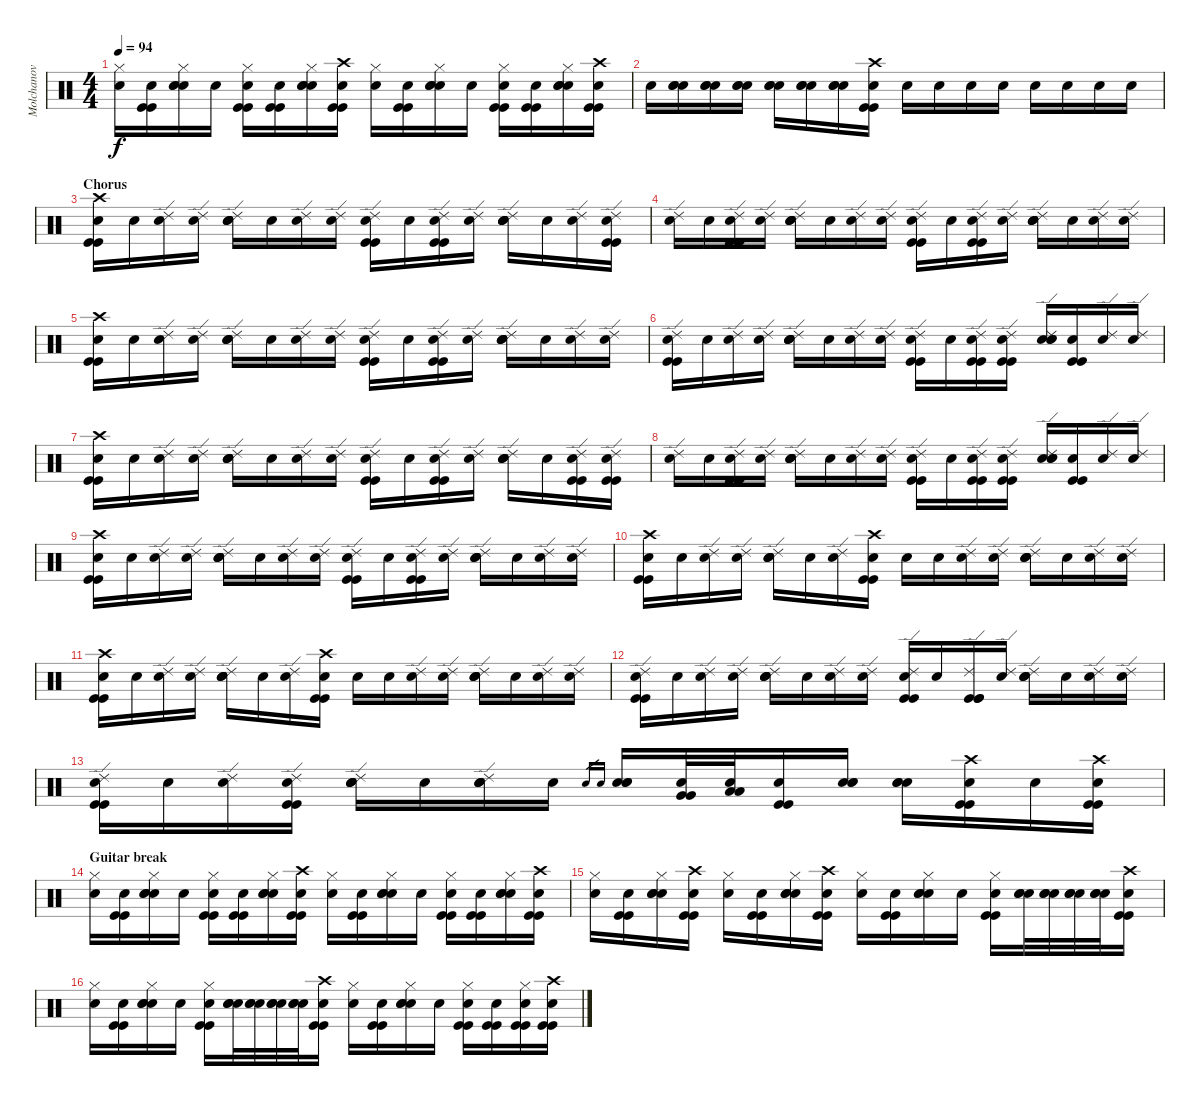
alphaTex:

\track ("Molchanov" "Molchanov") {instrument percussion}
\staff {score}
\articulation defaults
\ts (4 4)
\tempo 94
\clef neutral
\ks c
("Hi-Hat (closed)" "Snare (hit)"{x}).16{dy f} ("Kick (hit)" "Kick (hit)" "Snare (hit)"{x}).16 ("Hi-Hat (closed)" "Electric Snare (hit)" "Electric Snare (hit)" "Snare (hit)"{x}).16 "Snare (hit)"{x}.16 ("Hi-Hat (closed)" "Kick (hit)" "Kick (hit)" "Snare (hit)"{x}).16 ("Kick (hit)" "Kick (hit)" "Snare (hit)"{x}).16 ("Hi-Hat (closed)" "Electric Snare (hit)" "Electric Snare (hit)" "Snare (hit)"{x}).16 ("Crash high (hit)" "Kick (hit)" "Kick (hit)" "Snare (hit)"{x}).16 ("Hi-Hat (closed)" "Snare (hit)"{x}).16 ("Kick (hit)" "Kick (hit)" "Snare (hit)"{x}).16 ("Hi-Hat (closed)" "Electric Snare (hit)" "Electric Snare (hit)" "Snare (hit)"{x}).16 "Snare (hit)"{x}.16 ("Hi-Hat (closed)" "Kick (hit)" "Kick (hit)" "Snare (hit)"{x}).16 ("Kick (hit)" "Kick (hit)" "Snare (hit)"{x}).16 ("Hi-Hat (closed)" "Electric Snare (hit)" "Electric Snare (hit)" "Snare (hit)"{x}).16 ("Crash high (hit)" "Kick (hit)" "Kick (hit)" "Snare (hit)"{x}).16 |
"Snare (hit)"{x}.16 ("Electric Snare (hit)" "Electric Snare (hit)" "Snare (hit)"{x}).16 ("Electric Snare (hit)" "Electric Snare (hit)" "Snare (hit)"{x}).16 ("Electric Snare (hit)" "Electric Snare (hit)" "Snare (hit)"{x}).16 ("Electric Snare (hit)" "Electric Snare (hit)" "Snare (hit)"{x}).16 ("Electric Snare (hit)" "Electric Snare (hit)" "Snare (hit)"{x}).16 ("Electric Snare (hit)" "Electric Snare (hit)" "Snare (hit)"{x}).16 ("Crash high (hit)" "Kick (hit)" "Kick (hit)" "Snare (hit)"{x}).16 "Snare (hit)"{x}.16 "Snare (hit)"{x}.16 "Snare (hit)"{x}.16 "Snare (hit)"{x}.16 "Snare (hit)"{x}.16 "Snare (hit)"{x}.16 "Snare (hit)"{x}.16 "Snare (hit)"{x}.16 |
\section ("" "Chorus")
("Crash high (hit)" "Kick (hit)" "Kick (hit)" "Snare (hit)"{x}).16 "Snare (hit)"{x}.16 ("Ride (edge) 2" "Snare (hit)"{x}).16 ("Ride (edge) 2" "Snare (hit)"{x}).16 ("Ride (edge) 2" "Electric Snare (hit)" "Electric Snare (hit)" "Snare (hit)"{x}).16 "Snare (hit)"{x}.16 ("Ride (edge) 2" "Snare (hit)"{x}).16 ("Ride (edge) 2" "Snare (hit)"{x}).16 ("Ride (edge) 2" "Kick (hit)" "Kick (hit)" "Snare (hit)"{x}).16 "Snare (hit)"{x}.16 ("Ride (edge) 2" "Kick (hit)" "Kick (hit)" "Snare (hit)"{x}).16 ("Ride (edge) 2" "Snare (hit)"{x}).16 ("Ride (edge) 2" "Electric Snare (hit)" "Electric Snare (hit)" "Snare (hit)"{x}).16 "Snare (hit)"{x}.16 ("Ride (edge) 2" "Snare (hit)"{x}).16 ("Ride (edge) 2" "Kick (hit)" "Kick (hit)" "Snare (hit)"{x}).16 |
("Ride (edge) 2" "Snare (hit)"{x}).16 "Snare (hit)"{x}.16 ("Ride (edge) 2" "Kick (hit)" "Kick (hit)" "Snare (hit)"{x}).16 ("Ride (edge) 2" "Snare (hit)"{x}).16 ("Ride (edge) 2" "Electric Snare (hit)" "Electric Snare (hit)" "Snare (hit)"{x}).16 "Snare (hit)"{x}.16 ("Ride (edge) 2" "Snare (hit)"{x}).16 ("Ride (edge) 2" "Snare (hit)"{x}).16 ("Ride (edge) 2" "Kick (hit)" "Kick (hit)" "Snare (hit)"{x}).16 "Snare (hit)"{x}.16 ("Ride (edge) 2" "Kick (hit)" "Kick (hit)" "Snare (hit)"{x}).16 ("Ride (edge) 2" "Snare (hit)"{x}).16 ("Ride (edge) 2" "Electric Snare (hit)" "Electric Snare (hit)" "Snare (hit)"{x}).16 "Snare (hit)"{x}.16 ("Ride (edge) 2" "Snare (hit)"{x}).16 ("Ride (edge) 2" "Snare (hit)"{x}).16 |
("Crash high (hit)" "Kick (hit)" "Kick (hit)" "Snare (hit)"{x}).16 "Snare (hit)"{x}.16 ("Ride (edge) 2" "Snare (hit)"{x}).16 ("Ride (edge) 2" "Snare (hit)"{x}).16 ("Ride (edge) 2" "Electric Snare (hit)" "Electric Snare (hit)" "Snare (hit)"{x}).16 "Snare (hit)"{x}.16 ("Ride (edge) 2" "Snare (hit)"{x}).16 ("Ride (edge) 2" "Snare (hit)"{x}).16 ("Ride (edge) 2" "Kick (hit)" "Kick (hit)" "Snare (hit)"{x}).16 "Snare (hit)"{x}.16 ("Ride (edge) 2" "Kick (hit)" "Kick (hit)" "Snare (hit)"{x}).16 ("Ride (edge) 2" "Snare (hit)"{x}).16 ("Ride (edge) 2" "Electric Snare (hit)" "Electric Snare (hit)" "Snare (hit)"{x}).16 "Snare (hit)"{x}.16 ("Ride (edge) 2" "Snare (hit)"{x}).16 ("Ride (edge) 2" "Snare (hit)"{x}).16 |
("Ride (edge) 2" "Kick (hit)" "Kick (hit)" "Snare (hit)"{x}).16 "Snare (hit)"{x}.16 ("Ride (edge) 2" "Snare (hit)"{x}).16 ("Ride (edge) 2" "Snare (hit)"{x}).16 ("Ride (edge) 2" "Electric Snare (hit)" "Electric Snare (hit)" "Snare (hit)"{x}).16 "Snare (hit)"{x}.16 ("Ride (edge) 2" "Snare (hit)"{x}).16 ("Ride (edge) 2" "Snare (hit)"{x}).16 ("Ride (edge) 2" "Kick (hit)" "Kick (hit)" "Snare (hit)"{x}).16 "Snare (hit)"{x}.16 ("Ride (edge) 2" "Kick (hit)" "Kick (hit)" "Snare (hit)"{x}).16 ("Ride (edge) 2" "Kick (hit)" "Kick (hit)" "Snare (hit)"{x}).16 ("Ride (edge) 2" "Electric Snare (hit)" "Electric Snare (hit)" "Snare (hit)"{x}).16 ("Kick (hit)" "Kick (hit)" "Snare (hit)"{x}).16 ("Ride (edge) 2" "Snare (hit)"{x}).16 ("Ride (edge) 2" "Snare (hit)"{x}).16 |
("Crash high (hit)" "Kick (hit)" "Kick (hit)" "Snare (hit)"{x}).16 "Snare (hit)"{x}.16 ("Ride (edge) 2" "Snare (hit)"{x}).16 ("Ride (edge) 2" "Snare (hit)"{x}).16 ("Ride (edge) 2" "Electric Snare (hit)" "Electric Snare (hit)" "Snare (hit)"{x}).16 "Snare (hit)"{x}.16 ("Ride (edge) 2" "Snare (hit)"{x}).16 ("Ride (edge) 2" "Snare (hit)"{x}).16 ("Ride (edge) 2" "Kick (hit)" "Kick (hit)" "Snare (hit)"{x}).16 "Snare (hit)"{x}.16 ("Ride (edge) 2" "Kick (hit)" "Kick (hit)" "Snare (hit)"{x}).16 ("Ride (edge) 2" "Snare (hit)"{x}).16 ("Ride (edge) 2" "Electric Snare (hit)" "Electric Snare (hit)" "Snare (hit)"{x}).16 "Snare (hit)"{x}.16 ("Ride (edge) 2" "Kick (hit)" "Kick (hit)" "Snare (hit)"{x}).16 ("Ride (edge) 2" "Kick (hit)" "Kick (hit)" "Snare (hit)"{x}).16 |
("Ride (edge) 2" "Snare (hit)"{x}).16 "Snare (hit)"{x}.16 ("Ride (edge) 2" "Kick (hit)" "Kick (hit)" "Snare (hit)"{x}).16 ("Ride (edge) 2" "Snare (hit)"{x}).16 ("Ride (edge) 2" "Electric Snare (hit)" "Electric Snare (hit)" "Snare (hit)"{x}).16 "Snare (hit)"{x}.16 ("Ride (edge) 2" "Snare (hit)"{x}).16 ("Ride (edge) 2" "Snare (hit)"{x}).16 ("Ride (edge) 2" "Kick (hit)" "Kick (hit)" "Snare (hit)"{x}).16 "Snare (hit)"{x}.16 ("Ride (edge) 2" "Kick (hit)" "Kick (hit)" "Snare (hit)"{x}).16 ("Ride (edge) 2" "Kick (hit)" "Kick (hit)" "Snare (hit)"{x}).16 ("Ride (edge) 2" "Electric Snare (hit)" "Electric Snare (hit)" "Snare (hit)"{x}).16 ("Kick (hit)" "Kick (hit)" "Snare (hit)"{x}).16 ("Ride (edge) 2" "Snare (hit)"{x}).16 ("Ride (edge) 2" "Snare (hit)"{x}).16 |
("Crash high (hit)" "Kick (hit)" "Kick (hit)" "Snare (hit)"{x}).16 "Snare (hit)"{x}.16 ("Ride (edge) 2" "Snare (hit)"{x}).16 ("Ride (edge) 2" "Snare (hit)"{x}).16 ("Ride (edge) 2" "Electric Snare (hit)" "Electric Snare (hit)" "Snare (hit)"{x}).16 "Snare (hit)"{x}.16 ("Ride (edge) 2" "Snare (hit)"{x}).16 ("Ride (edge) 2" "Snare (hit)"{x}).16 ("Ride (edge) 2" "Kick (hit)" "Kick (hit)" "Snare (hit)"{x}).16 "Snare (hit)"{x}.16 ("Ride (edge) 2" "Kick (hit)" "Kick (hit)" "Snare (hit)"{x}).16 ("Ride (edge) 2" "Snare (hit)"{x}).16 ("Ride (edge) 2" "Electric Snare (hit)" "Electric Snare (hit)" "Snare (hit)"{x}).16 "Snare (hit)"{x}.16 ("Ride (edge) 2" "Snare (hit)"{x}).16 ("Ride (edge) 2" "Snare (hit)"{x}).16 |
("Crash high (hit)" "Kick (hit)" "Kick (hit)" "Snare (hit)"{x}).16 "Snare (hit)"{x}.16 ("Ride (edge) 2" "Snare (hit)"{x}).16 ("Ride (edge) 2" "Snare (hit)"{x}).16 ("Ride (edge) 2" "Electric Snare (hit)" "Electric Snare (hit)" "Snare (hit)"{x}).16 "Snare (hit)"{x}.16 ("Ride (edge) 2" "Snare (hit)"{x}).16 ("Crash high (hit)" "Kick (hit)" "Kick (hit)" "Snare (hit)"{x}).16 "Snare (hit)"{x}.16 "Snare (hit)"{x}.16 ("Ride (edge) 2" "Snare (hit)"{x}).16 ("Ride (edge) 2" "Snare (hit)"{x}).16 ("Ride (edge) 2" "Electric Snare (hit)" "Electric Snare (hit)" "Snare (hit)"{x}).16 "Snare (hit)"{x}.16 ("Ride (edge) 2" "Snare (hit)"{x}).16 ("Ride (edge) 2" "Snare (hit)"{x}).16 |
("Crash high (hit)" "Kick (hit)" "Kick (hit)" "Snare (hit)"{x}).16 "Snare (hit)"{x}.16 ("Ride (edge) 2" "Snare (hit)"{x}).16 ("Ride (edge) 2" "Snare (hit)"{x}).16 ("Ride (edge) 2" "Electric Snare (hit)" "Electric Snare (hit)" "Snare (hit)"{x}).16 "Snare (hit)"{x}.16 ("Ride (edge) 2" "Snare (hit)"{x}).16 ("Crash high (hit)" "Kick (hit)" "Kick (hit)" "Snare (hit)"{x}).16 "Snare (hit)"{x}.16 "Snare (hit)"{x}.16 ("Ride (edge) 2" "Snare (hit)"{x}).16 ("Ride (edge) 2" "Snare (hit)"{x}).16 ("Ride (edge) 2" "Electric Snare (hit)" "Electric Snare (hit)" "Snare (hit)"{x}).16 "Snare (hit)"{x}.16 ("Ride (edge) 2" "Snare (hit)"{x}).16 ("Ride (edge) 2" "Snare (hit)"{x}).16 |
("Ride (edge) 2" "Kick (hit)" "Kick (hit)" "Snare (hit)"{x}).16 "Snare (hit)"{x}.16 ("Ride (edge) 2" "Snare (hit)"{x}).16 ("Ride (edge) 2" "Snare (hit)"{x}).16 ("Ride (edge) 2" "Electric Snare (hit)" "Electric Snare (hit)" "Snare (hit)"{x}).16 "Snare (hit)"{x}.16 ("Ride (edge) 2" "Snare (hit)"{x}).16 ("Ride (edge) 2" "Snare (hit)"{x}).16 ("Ride (edge) 2" "Kick (hit)" "Kick (hit)" "Snare (hit)"{x}).16 "Snare (hit)"{x}.16 ("Ride (edge) 2" "Kick (hit)" "Kick (hit)" "Kick (hit)"{x}).16 ("Ride (edge) 2" "Snare (hit)"{x}).16 ("Ride (edge) 2" "Electric Snare (hit)" "Electric Snare (hit)" "Snare (hit)"{x}).16 "Snare (hit)"{x}.16 ("Ride (edge) 2" "Snare (hit)"{x}).16 ("Ride (edge) 2" "Snare (hit)"{x}).16 |
("Ride (edge) 2" "Kick (hit)" "Kick (hit)" "Snare (hit)"{x}).16 "Snare (hit)"{x}.16 ("Ride (edge) 2" "Snare (hit)"{x}).16 ("Ride (edge) 2" "Kick (hit)" "Kick (hit)" "Snare (hit)"{x}).16 ("Ride (edge) 2" "Electric Snare (hit)" "Electric Snare (hit)" "Snare (hit)"{x}).16 "Snare (hit)"{x}.16 ("Ride (edge) 2" "Electric Snare (hit)" "Electric Snare (hit)" "Snare (hit)"{x}).16 "Snare (hit)"{x}.16 "Electric Snare (hit)".16{gr} "Electric Snare (hit)".16{gr} ("Electric Snare (hit)" "Electric Snare (hit)" "Snare (hit)"{x}).16 ("Very Low Tom (hit)" "Very Low Tom (hit)" "Snare (hit)"{x}).32 ("Low Floor Tom (hit)" "Low Floor Tom (hit)" "Snare (hit)"{x}).32 ("Kick (hit)" "Kick (hit)" "Snare (hit)"{x}).16 ("Electric Snare (hit)" "Electric Snare (hit)" "Snare (hit)"{x}).16 ("Electric Snare (hit)" "Electric Snare (hit)" "Snare (hit)"{x}).16 ("Crash high (hit)" "Kick (hit)" "Kick (hit)" "Snare (hit)"{x}).16 "Snare (hit)"{x}.16 ("Crash high (hit)" "Kick (hit)" "Kick (hit)" "Snare (hit)"{x}).16 |
\section ("" "Guitar break")
("Hi-Hat (closed)" "Snare (hit)"{x}).16 ("Kick (hit)" "Kick (hit)" "Snare (hit)"{x}).16 ("Hi-Hat (closed)" "Electric Snare (hit)" "Electric Snare (hit)" "Snare (hit)"{x}).16 "Snare (hit)"{x}.16 ("Hi-Hat (closed)" "Kick (hit)" "Kick (hit)" "Snare (hit)"{x}).16 ("Kick (hit)" "Kick (hit)" "Snare (hit)"{x}).16 ("Hi-Hat (closed)" "Electric Snare (hit)" "Electric Snare (hit)" "Snare (hit)"{x}).16 ("Crash high (hit)" "Kick (hit)" "Kick (hit)" "Snare (hit)"{x}).16 ("Hi-Hat (closed)" "Snare (hit)"{x}).16 ("Kick (hit)" "Kick (hit)" "Snare (hit)"{x}).16 ("Hi-Hat (closed)" "Electric Snare (hit)" "Electric Snare (hit)" "Snare (hit)"{x}).16 "Snare (hit)"{x}.16 ("Hi-Hat (closed)" "Kick (hit)" "Kick (hit)" "Snare (hit)"{x}).16 ("Kick (hit)" "Kick (hit)" "Snare (hit)"{x}).16 ("Hi-Hat (closed)" "Electric Snare (hit)" "Electric Snare (hit)" "Snare (hit)"{x}).16 ("Crash high (hit)" "Kick (hit)" "Kick (hit)" "Snare (hit)"{x}).16 |
("Hi-Hat (closed)" "Snare (hit)"{x}).16 ("Kick (hit)" "Kick (hit)" "Snare (hit)"{x}).16 ("Hi-Hat (closed)" "Electric Snare (hit)" "Electric Snare (hit)" "Snare (hit)"{x}).16 ("Crash high (hit)" "Kick (hit)" "Kick (hit)" "Snare (hit)"{x}).16 ("Hi-Hat (closed)" "Snare (hit)"{x}).16 ("Kick (hit)" "Kick (hit)" "Snare (hit)"{x}).16 ("Hi-Hat (closed)" "Electric Snare (hit)" "Electric Snare (hit)" "Snare (hit)"{x}).16 ("Crash high (hit)" "Kick (hit)" "Kick (hit)" "Snare (hit)"{x}).16 ("Hi-Hat (closed)" "Snare (hit)"{x}).16 ("Kick (hit)" "Kick (hit)" "Snare (hit)"{x}).16 ("Hi-Hat (closed)" "Electric Snare (hit)" "Electric Snare (hit)" "Snare (hit)"{x}).16 "Snare (hit)"{x}.16 ("Hi-Hat (closed)" "Kick (hit)" "Kick (hit)" "Snare (hit)"{x}).16 ("Electric Snare (hit)" "Electric Snare (hit)" "Snare (hit)"{x}).32 ("Electric Snare (hit)" "Electric Snare (hit)" "Snare (hit)"{x}).32 ("Electric Snare (hit)" "Electric Snare (hit)" "Snare (hit)"{x}).32 ("Electric Snare (hit)" "Electric Snare (hit)" "Snare (hit)"{x}).32 ("Crash high (hit)" "Kick (hit)" "Kick (hit)" "Snare (hit)"{x}).16 |
("Hi-Hat (closed)" "Snare (hit)"{x}).16 ("Kick (hit)" "Kick (hit)" "Snare (hit)"{x}).16 ("Hi-Hat (closed)" "Electric Snare (hit)" "Electric Snare (hit)" "Snare (hit)"{x}).16 "Snare (hit)"{x}.16 ("Hi-Hat (closed)" "Kick (hit)" "Kick (hit)" "Snare (hit)"{x}).16 ("Electric Snare (hit)" "Electric Snare (hit)" "Snare (hit)"{x}).32 ("Electric Snare (hit)" "Electric Snare (hit)" "Snare (hit)"{x}).32 ("Electric Snare (hit)" "Electric Snare (hit)" "Snare (hit)"{x}).32 ("Electric Snare (hit)" "Electric Snare (hit)" "Snare (hit)"{x}).32 ("Crash high (hit)" "Kick (hit)" "Kick (hit)" "Snare (hit)"{x}).16 ("Hi-Hat (closed)" "Snare (hit)"{x}).16 ("Kick (hit)" "Kick (hit)" "Snare (hit)"{x}).16 ("Hi-Hat (closed)" "Electric Snare (hit)" "Electric Snare (hit)" "Snare (hit)"{x}).16 "Snare (hit)"{x}.16 ("Hi-Hat (closed)" "Kick (hit)" "Kick (hit)" "Snare (hit)"{x}).16 ("Kick (hit)" "Kick (hit)" "Snare (hit)"{x}).16 ("Hi-Hat (closed)" "Kick (hit)" "Kick (hit)" "Snare (hit)"{x}).16 ("Crash high (hit)" "Kick (hit)" "Kick (hit)" "Snare (hit)"{x}).16
